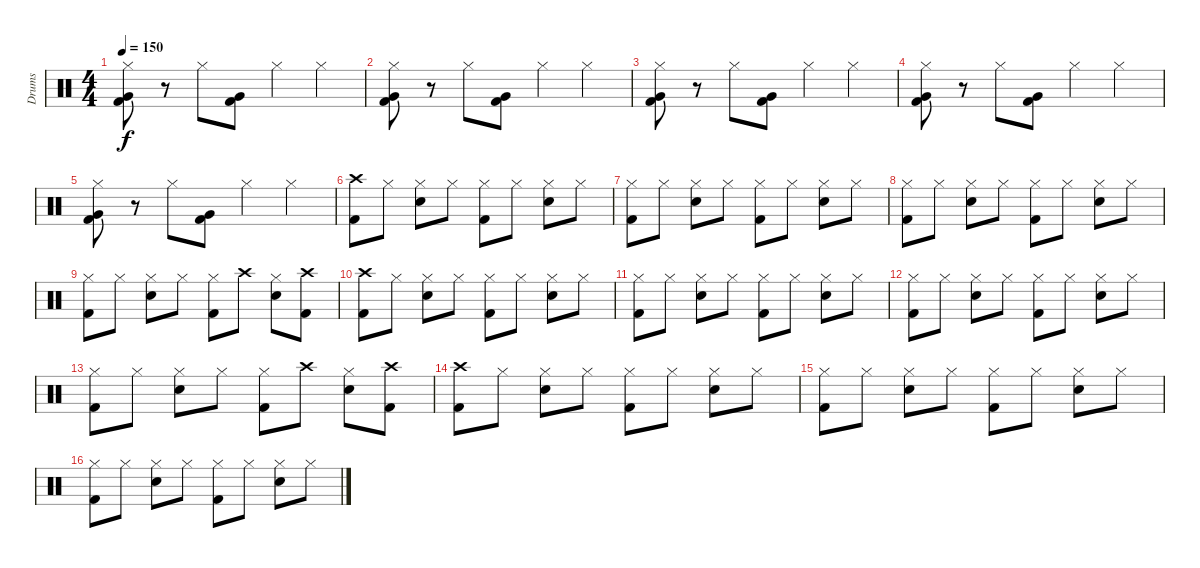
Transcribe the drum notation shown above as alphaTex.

\track ("Drums" "Drums") {instrument percussion}
\staff {score}
\articulation defaults
\ts (4 4)
\tempo 150
\clef neutral
\ks c
("Hi-Hat (closed)" "Very Low Tom (hit)" "Kick (hit) 2").8{dy f} r.8 "Hi-Hat (closed)".8 ("Very Low Tom (hit)" "Kick (hit) 2").8 "Hi-Hat (closed)".4 "Hi-Hat (closed)".4 |
("Hi-Hat (closed)" "Very Low Tom (hit)" "Kick (hit) 2").8 r.8 "Hi-Hat (closed)".8 ("Very Low Tom (hit)" "Kick (hit) 2").8 "Hi-Hat (closed)".4 "Hi-Hat (closed)".4 |
("Hi-Hat (closed)" "Very Low Tom (hit)" "Kick (hit) 2").8 r.8 "Hi-Hat (closed)".8 ("Very Low Tom (hit)" "Kick (hit) 2").8 "Hi-Hat (closed)".4 "Hi-Hat (closed)".4 |
("Hi-Hat (closed)" "Very Low Tom (hit)" "Kick (hit) 2").8 r.8 "Hi-Hat (closed)".8 ("Very Low Tom (hit)" "Kick (hit) 2").8 "Hi-Hat (closed)".4 "Hi-Hat (closed)".4 |
("Hi-Hat (closed)" "Very Low Tom (hit)" "Kick (hit) 2").8 r.8 "Hi-Hat (closed)".8 ("Very Low Tom (hit)" "Kick (hit) 2").8 "Hi-Hat (closed)".4 "Hi-Hat (closed)".4 |
("Crash high (hit)" "Kick (hit) 2").8 "Hi-Hat (closed)".8 ("Hi-Hat (closed)" "Electric Snare (hit)").8 "Hi-Hat (closed)".8 ("Hi-Hat (closed)" "Kick (hit) 2").8 "Hi-Hat (closed)".8 ("Hi-Hat (closed)" "Electric Snare (hit)").8 "Hi-Hat (closed)".8 |
("Hi-Hat (closed)" "Kick (hit) 2").8 "Hi-Hat (closed)".8 ("Hi-Hat (closed)" "Electric Snare (hit)").8 "Hi-Hat (closed)".8 ("Hi-Hat (closed)" "Kick (hit) 2").8 "Hi-Hat (closed)".8 ("Hi-Hat (closed)" "Electric Snare (hit)").8 "Hi-Hat (closed)".8 |
("Hi-Hat (closed)" "Kick (hit) 2").8 "Hi-Hat (closed)".8 ("Hi-Hat (closed)" "Electric Snare (hit)").8 "Hi-Hat (closed)".8 ("Hi-Hat (closed)" "Kick (hit) 2").8 "Hi-Hat (closed)".8 ("Hi-Hat (closed)" "Electric Snare (hit)").8 "Hi-Hat (closed)".8 |
("Hi-Hat (closed)" "Kick (hit) 2").8 "Hi-Hat (closed)".8 ("Hi-Hat (closed)" "Electric Snare (hit)").8 "Hi-Hat (closed)".8 ("Hi-Hat (closed)" "Kick (hit) 2").8 "Crash high (hit)".8 ("Hi-Hat (closed)" "Electric Snare (hit)").8 ("Crash high (hit)" "Kick (hit) 2").8 |
("Crash high (hit)" "Kick (hit) 2").8 "Hi-Hat (closed)".8 ("Hi-Hat (closed)" "Electric Snare (hit)").8 "Hi-Hat (closed)".8 ("Hi-Hat (closed)" "Kick (hit) 2").8 "Hi-Hat (closed)".8 ("Hi-Hat (closed)" "Electric Snare (hit)").8 "Hi-Hat (closed)".8 |
("Hi-Hat (closed)" "Kick (hit) 2").8 "Hi-Hat (closed)".8 ("Hi-Hat (closed)" "Electric Snare (hit)").8 "Hi-Hat (closed)".8 ("Hi-Hat (closed)" "Kick (hit) 2").8 "Hi-Hat (closed)".8 ("Hi-Hat (closed)" "Electric Snare (hit)").8 "Hi-Hat (closed)".8 |
("Hi-Hat (closed)" "Kick (hit) 2").8 "Hi-Hat (closed)".8 ("Hi-Hat (closed)" "Electric Snare (hit)").8 "Hi-Hat (closed)".8 ("Hi-Hat (closed)" "Kick (hit) 2").8 "Hi-Hat (closed)".8 ("Hi-Hat (closed)" "Electric Snare (hit)").8 "Hi-Hat (closed)".8 |
("Hi-Hat (closed)" "Kick (hit) 2").8 "Hi-Hat (closed)".8 ("Hi-Hat (closed)" "Electric Snare (hit)").8 "Hi-Hat (closed)".8 ("Hi-Hat (closed)" "Kick (hit) 2").8 "Crash high (hit)".8 ("Hi-Hat (closed)" "Electric Snare (hit)").8 ("Crash high (hit)" "Kick (hit) 2").8 |
("Crash high (hit)" "Kick (hit) 2").8 "Hi-Hat (closed)".8 ("Hi-Hat (closed)" "Electric Snare (hit)").8 "Hi-Hat (closed)".8 ("Hi-Hat (closed)" "Kick (hit) 2").8 "Hi-Hat (closed)".8 ("Hi-Hat (closed)" "Electric Snare (hit)").8 "Hi-Hat (closed)".8 |
("Hi-Hat (closed)" "Kick (hit) 2").8 "Hi-Hat (closed)".8 ("Hi-Hat (closed)" "Electric Snare (hit)").8 "Hi-Hat (closed)".8 ("Hi-Hat (closed)" "Kick (hit) 2").8 "Hi-Hat (closed)".8 ("Hi-Hat (closed)" "Electric Snare (hit)").8 "Hi-Hat (closed)".8 |
("Hi-Hat (closed)" "Kick (hit) 2").8 "Hi-Hat (closed)".8 ("Hi-Hat (closed)" "Electric Snare (hit)").8 "Hi-Hat (closed)".8 ("Hi-Hat (closed)" "Kick (hit) 2").8 "Hi-Hat (closed)".8 ("Hi-Hat (closed)" "Electric Snare (hit)").8 "Hi-Hat (closed)".8
